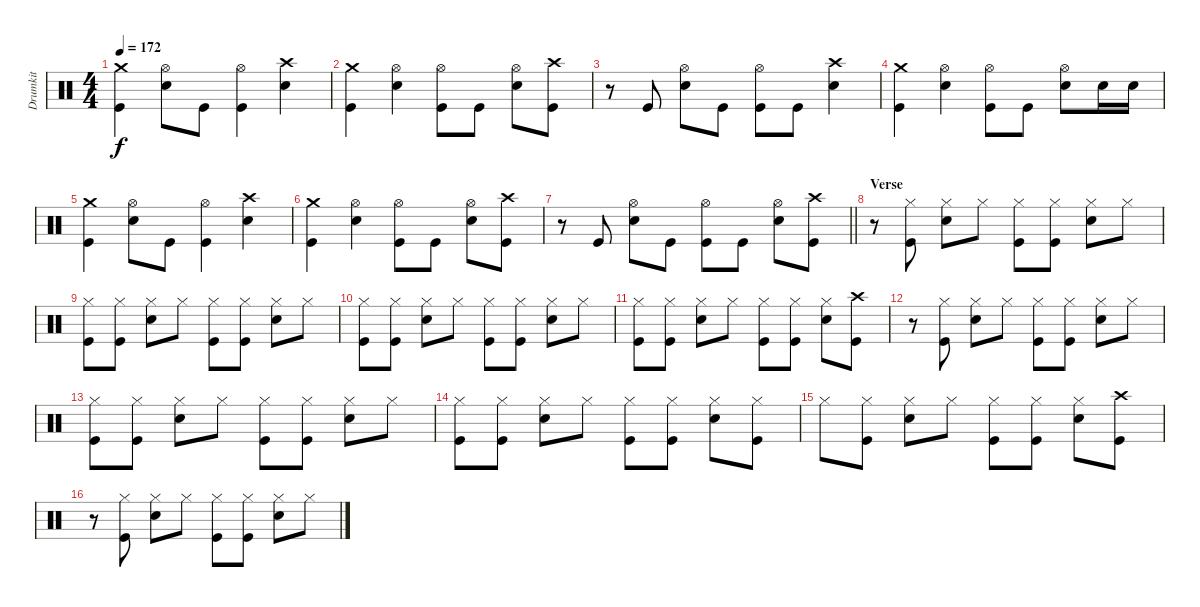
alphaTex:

\track ("Drumkit" "Drumkit") {instrument percussion}
\staff {score}
\articulation defaults
\ts (4 4)
\tempo 172
\clef neutral
\ks c
("Crash medium (hit)" "Kick (hit)").4{dy f} ("Hi-Hat (open)" "Snare (hit) 2").8 "Kick (hit)".8 ("Hi-Hat (open)" "Kick (hit)").4 ("Crash high (hit)" "Snare (hit) 2").4 |
("Crash medium (hit)" "Kick (hit)").4 ("Hi-Hat (open)" "Snare (hit) 2").4 ("Hi-Hat (open)" "Kick (hit)").8 "Kick (hit)".8 ("Hi-Hat (open)" "Snare (hit) 2").8 ("Crash high (hit)" "Kick (hit)").8 |
r.8 "Kick (hit)".8 ("Hi-Hat (open)" "Snare (hit) 2").8 "Kick (hit)".8 ("Hi-Hat (open)" "Kick (hit)").8 "Kick (hit)".8 ("Crash high (hit)" "Snare (hit) 2").4 |
("Crash medium (hit)" "Kick (hit)").4 ("Hi-Hat (open)" "Snare (hit) 2").4 ("Hi-Hat (open)" "Kick (hit)").8 "Kick (hit)".8 ("Hi-Hat (open)" "Snare (hit) 2").8 "Snare (hit) 2".16 "Snare (hit) 2".16 |
("Crash medium (hit)" "Kick (hit)").4 ("Hi-Hat (open)" "Snare (hit) 2").8 "Kick (hit)".8 ("Hi-Hat (open)" "Kick (hit)").4 ("Crash high (hit)" "Snare (hit) 2").4 |
("Crash medium (hit)" "Kick (hit)").4 ("Hi-Hat (open)" "Snare (hit) 2").4 ("Hi-Hat (open)" "Kick (hit)").8 "Kick (hit)".8 ("Hi-Hat (open)" "Snare (hit) 2").8 ("Crash high (hit)" "Kick (hit)").8 |
\barLineRight lightlight
r.8 "Kick (hit)".8 ("Hi-Hat (open)" "Snare (hit) 2").8 "Kick (hit)".8 ("Hi-Hat (open)" "Kick (hit)").8 "Kick (hit)".8 ("Hi-Hat (open)" "Snare (hit) 2").8 ("Crash high (hit)" "Kick (hit)").8 |
\section ("" "Verse")
r.8 ("Hi-Hat (closed)" "Kick (hit)").8 ("Hi-Hat (closed)" "Snare (hit) 2").8 "Hi-Hat (closed)".8 ("Hi-Hat (closed)" "Kick (hit)").8 ("Hi-Hat (closed)" "Kick (hit)").8 ("Hi-Hat (closed)" "Snare (hit) 2").8 "Hi-Hat (closed)".8 |
("Hi-Hat (closed)" "Kick (hit)").8 ("Hi-Hat (closed)" "Kick (hit)").8 ("Hi-Hat (closed)" "Snare (hit) 2").8 "Hi-Hat (closed)".8 ("Hi-Hat (closed)" "Kick (hit)").8 ("Hi-Hat (closed)" "Kick (hit)").8 ("Hi-Hat (closed)" "Snare (hit) 2").8 "Hi-Hat (closed)".8 |
("Hi-Hat (closed)" "Kick (hit)").8 ("Hi-Hat (closed)" "Kick (hit)").8 ("Hi-Hat (closed)" "Snare (hit) 2").8 "Hi-Hat (closed)".8 ("Hi-Hat (closed)" "Kick (hit)").8 ("Hi-Hat (closed)" "Kick (hit)").8 ("Hi-Hat (closed)" "Snare (hit) 2").8 "Hi-Hat (closed)".8 |
("Hi-Hat (closed)" "Kick (hit)").8 ("Hi-Hat (closed)" "Kick (hit)").8 ("Hi-Hat (closed)" "Snare (hit) 2").8 "Hi-Hat (closed)".8 ("Hi-Hat (closed)" "Kick (hit)").8 ("Hi-Hat (closed)" "Kick (hit)").8 ("Hi-Hat (closed)" "Snare (hit) 2").8 ("Crash high (hit)" "Kick (hit)").8 |
r.8 ("Hi-Hat (closed)" "Kick (hit)").8 ("Hi-Hat (closed)" "Snare (hit) 2").8 "Hi-Hat (closed)".8 ("Hi-Hat (closed)" "Kick (hit)").8 ("Hi-Hat (closed)" "Kick (hit)").8 ("Hi-Hat (closed)" "Snare (hit) 2").8 "Hi-Hat (closed)".8 |
("Hi-Hat (closed)" "Kick (hit)").8 ("Hi-Hat (closed)" "Kick (hit)").8 ("Hi-Hat (closed)" "Snare (hit) 2").8 "Hi-Hat (closed)".8 ("Hi-Hat (closed)" "Kick (hit)").8 ("Hi-Hat (closed)" "Kick (hit)").8 ("Hi-Hat (closed)" "Snare (hit) 2").8 "Hi-Hat (closed)".8 |
("Hi-Hat (closed)" "Kick (hit)").8 ("Hi-Hat (closed)" "Kick (hit)").8 ("Hi-Hat (closed)" "Snare (hit) 2").8 "Hi-Hat (closed)".8 ("Hi-Hat (closed)" "Kick (hit)").8 ("Hi-Hat (closed)" "Kick (hit)").8 ("Hi-Hat (closed)" "Snare (hit) 2").8 ("Hi-Hat (closed)" "Kick (hit)").8 |
"Hi-Hat (closed)".8 ("Hi-Hat (closed)" "Kick (hit)").8 ("Hi-Hat (closed)" "Snare (hit) 2").8 "Hi-Hat (closed)".8 ("Hi-Hat (closed)" "Kick (hit)").8 ("Hi-Hat (closed)" "Kick (hit)").8 ("Hi-Hat (closed)" "Snare (hit) 2").8 ("Crash high (hit)" "Kick (hit)").8 |
r.8 ("Hi-Hat (closed)" "Kick (hit)").8 ("Hi-Hat (closed)" "Snare (hit) 2").8 "Hi-Hat (closed)".8 ("Hi-Hat (closed)" "Kick (hit)").8 ("Hi-Hat (closed)" "Kick (hit)").8 ("Hi-Hat (closed)" "Snare (hit) 2").8 "Hi-Hat (closed)".8
